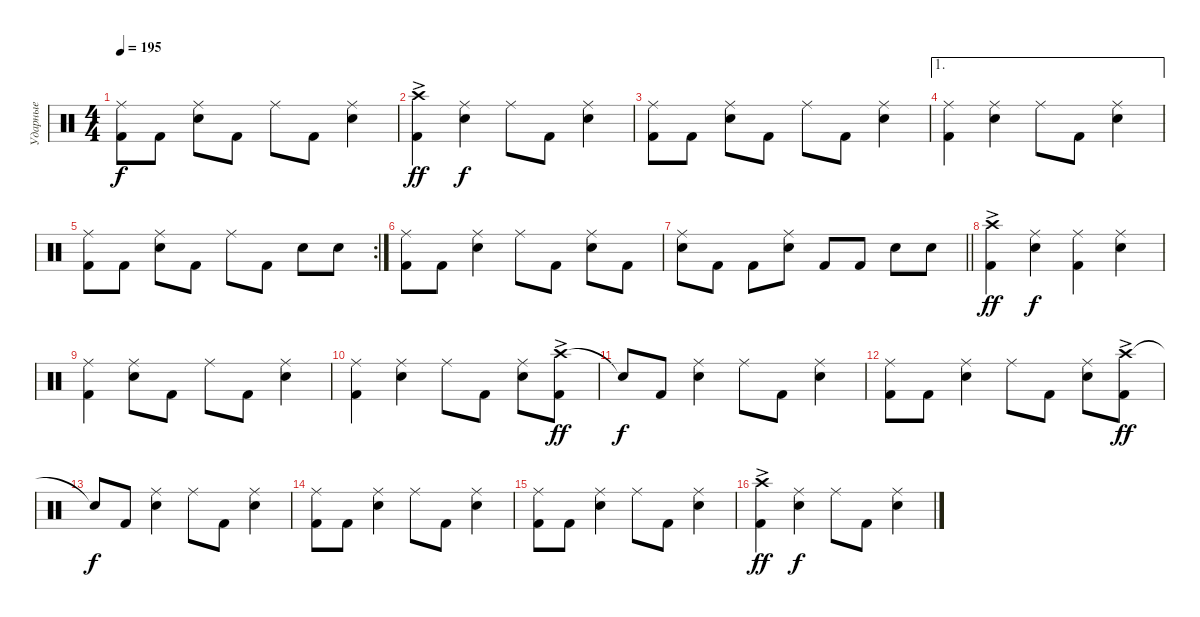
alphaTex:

\track ("Ударные" "Ударные") {instrument percussion}
\staff {score}
\articulation defaults
\ts (4 4)
\tempo 195
\clef neutral
\ks c
("Ride (middle)" "Kick (hit) 2").8{dy f} "Kick (hit) 2".8 ("Ride (middle)" "Snare (hit) 2").8 "Kick (hit) 2".8 "Ride (middle)".8 "Kick (hit) 2".8 ("Ride (middle)" "Snare (hit) 2").4 |
("Crash high (hit)"{ac} "Kick (hit) 2").4{dy ff} ("Ride (middle)" "Snare (hit) 2").4{dy f} "Ride (middle)".8 "Kick (hit) 2".8 ("Ride (middle)" "Snare (hit) 2").4 |
("Ride (middle)" "Kick (hit) 2").8 "Kick (hit) 2".8 ("Ride (middle)" "Snare (hit) 2").8 "Kick (hit) 2".8 "Ride (middle)".8 "Kick (hit) 2".8 ("Ride (middle)" "Snare (hit) 2").4 |
\ae 1
("Ride (middle)" "Kick (hit) 2").4 ("Ride (middle)" "Snare (hit) 2").4 "Ride (middle)".8 "Kick (hit) 2".8 ("Ride (middle)" "Snare (hit) 2").4 |
\rc 2
("Ride (middle)" "Kick (hit) 2").8 "Kick (hit) 2".8 ("Ride (middle)" "Snare (hit) 2").8 "Kick (hit) 2".8 "Ride (middle)".8 "Kick (hit) 2".8 "Snare (hit) 2".8 "Snare (hit) 2".8 |
("Ride (middle)" "Kick (hit) 2").8 "Kick (hit) 2".8 ("Ride (middle)" "Snare (hit) 2").4 "Ride (middle)".8 "Kick (hit) 2".8 ("Ride (middle)" "Snare (hit) 2").8 "Kick (hit) 2".8 |
\barLineRight lightlight
("Ride (middle)" "Snare (hit) 2").8 "Kick (hit) 2".8 "Kick (hit) 2".8 ("Ride (middle)" "Snare (hit) 2").8 "Kick (hit) 2".8 "Kick (hit) 2".8 "Snare (hit) 2".8 "Snare (hit) 2".8 |
("Crash high (hit)"{ac} "Kick (hit) 2").4{dy ff} ("Ride (middle)" "Snare (hit) 2").4{dy f} ("Ride (middle)" "Kick (hit) 2").4 ("Ride (middle)" "Snare (hit) 2").4 |
("Ride (middle)" "Kick (hit) 2").4 ("Ride (middle)" "Snare (hit) 2").8 "Kick (hit) 2".8 "Ride (middle)".8 "Kick (hit) 2".8 ("Ride (middle)" "Snare (hit) 2").4 |
("Ride (middle)" "Kick (hit) 2").4 ("Ride (middle)" "Snare (hit) 2").4 "Ride (middle)".8 "Kick (hit) 2".8 ("Ride (middle)" "Snare (hit) 2").8 ("Crash high (hit)"{ac} "Kick (hit) 2").8{dy ff} |
"Snare (hit)"{t}.8{dy f} "Kick (hit) 2".8 ("Ride (middle)" "Snare (hit) 2").4 "Ride (middle)".8 "Kick (hit) 2".8 ("Ride (middle)" "Snare (hit) 2").4 |
("Ride (middle)" "Kick (hit) 2").8 "Kick (hit) 2".8 ("Ride (middle)" "Snare (hit) 2").4 "Ride (middle)".8 "Kick (hit) 2".8 ("Ride (middle)" "Snare (hit) 2").8 ("Crash high (hit)"{ac} "Kick (hit) 2").8{dy ff} |
"Snare (hit)"{t}.8{dy f} "Kick (hit) 2".8 ("Ride (middle)" "Snare (hit) 2").4 "Ride (middle)".8 "Kick (hit) 2".8 ("Ride (middle)" "Snare (hit) 2").4 |
("Ride (middle)" "Kick (hit) 2").8 "Kick (hit) 2".8 ("Ride (middle)" "Snare (hit) 2").4 "Ride (middle)".8 "Kick (hit) 2".8 ("Ride (middle)" "Snare (hit) 2").4 |
("Ride (middle)" "Kick (hit) 2").8 "Kick (hit) 2".8 ("Ride (middle)" "Snare (hit) 2").4 "Ride (middle)".8 "Kick (hit) 2".8 ("Ride (middle)" "Snare (hit) 2").4 |
("Crash high (hit)"{ac} "Kick (hit) 2").4{dy ff} ("Ride (middle)" "Snare (hit) 2").4{dy f} "Ride (middle)".8 "Kick (hit) 2".8 ("Ride (middle)" "Snare (hit) 2").4
